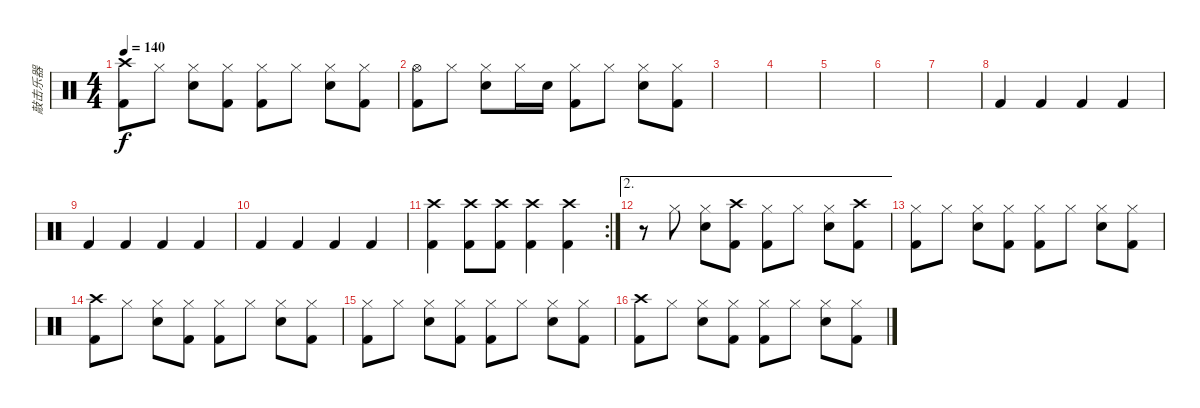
\track ("敲击乐器" "敲击乐器") {instrument percussion}
\staff {score}
\articulation defaults
\ts (4 4)
\tempo 140
\clef neutral
\ks c
("Crash high (hit)" "Kick (hit) 2").8{dy f} "Hi-Hat (closed)".8 ("Hi-Hat (closed)" "Snare (hit) 2").8 ("Hi-Hat (closed)" "Kick (hit) 2").8 ("Hi-Hat (closed)" "Kick (hit) 2").8 "Hi-Hat (closed)".8 ("Hi-Hat (closed)" "Snare (hit) 2").8 ("Hi-Hat (closed)" "Kick (hit) 2").8 |
("Hi-Hat (open)" "Kick (hit) 2").8 "Hi-Hat (closed)".8 ("Hi-Hat (closed)" "Snare (hit) 2").8 "Hi-Hat (closed)".16 "Snare (hit) 2".16 ("Hi-Hat (closed)" "Kick (hit) 2").8 "Hi-Hat (closed)".8 ("Hi-Hat (closed)" "Snare (hit) 2").8 ("Hi-Hat (closed)" "Kick (hit) 2").8 |
|
|
|
|
|
"Kick (hit) 2".4 "Kick (hit) 2".4 "Kick (hit) 2".4 "Kick (hit) 2".4 |
"Kick (hit) 2".4 "Kick (hit) 2".4 "Kick (hit) 2".4 "Kick (hit) 2".4 |
"Kick (hit) 2".4 "Kick (hit) 2".4 "Kick (hit) 2".4 "Kick (hit) 2".4 |
\rc 2
("Crash high (hit)" "Kick (hit) 2").4 ("Crash high (hit)" "Kick (hit) 2").8 ("Crash high (hit)" "Kick (hit) 2").8 ("Crash high (hit)" "Kick (hit) 2").4 ("Crash high (hit)" "Kick (hit) 2").4 |
\ae 2
r.8 "Hi-Hat (closed)".8 ("Hi-Hat (closed)" "Snare (hit) 2").8 ("Crash high (hit)" "Kick (hit) 2").8 ("Hi-Hat (closed)" "Kick (hit) 2").8 "Hi-Hat (closed)".8 ("Hi-Hat (closed)" "Snare (hit) 2").8 ("Crash high (hit)" "Kick (hit) 2").8 |
("Hi-Hat (closed)" "Kick (hit) 2").8 "Hi-Hat (closed)".8 ("Hi-Hat (closed)" "Snare (hit) 2").8 ("Hi-Hat (closed)" "Kick (hit) 2").8 ("Hi-Hat (closed)" "Kick (hit) 2").8 "Hi-Hat (closed)".8 ("Hi-Hat (closed)" "Snare (hit) 2").8 ("Hi-Hat (closed)" "Kick (hit) 2").8 |
("Crash high (hit)" "Kick (hit) 2").8 "Hi-Hat (closed)".8 ("Hi-Hat (closed)" "Snare (hit) 2").8 ("Hi-Hat (closed)" "Kick (hit) 2").8 ("Hi-Hat (closed)" "Kick (hit) 2").8 "Hi-Hat (closed)".8 ("Hi-Hat (closed)" "Snare (hit) 2").8 ("Hi-Hat (closed)" "Kick (hit) 2").8 |
("Hi-Hat (closed)" "Kick (hit) 2").8 "Hi-Hat (closed)".8 ("Hi-Hat (closed)" "Snare (hit) 2").8 ("Hi-Hat (closed)" "Kick (hit) 2").8 ("Hi-Hat (closed)" "Kick (hit) 2").8 "Hi-Hat (closed)".8 ("Hi-Hat (closed)" "Snare (hit) 2").8 ("Hi-Hat (closed)" "Kick (hit) 2").8 |
("Crash high (hit)" "Kick (hit) 2").8 "Hi-Hat (closed)".8 ("Hi-Hat (closed)" "Snare (hit) 2").8 ("Hi-Hat (closed)" "Kick (hit) 2").8 ("Hi-Hat (closed)" "Kick (hit) 2").8 "Hi-Hat (closed)".8 ("Hi-Hat (closed)" "Snare (hit) 2").8 ("Hi-Hat (closed)" "Kick (hit) 2").8
